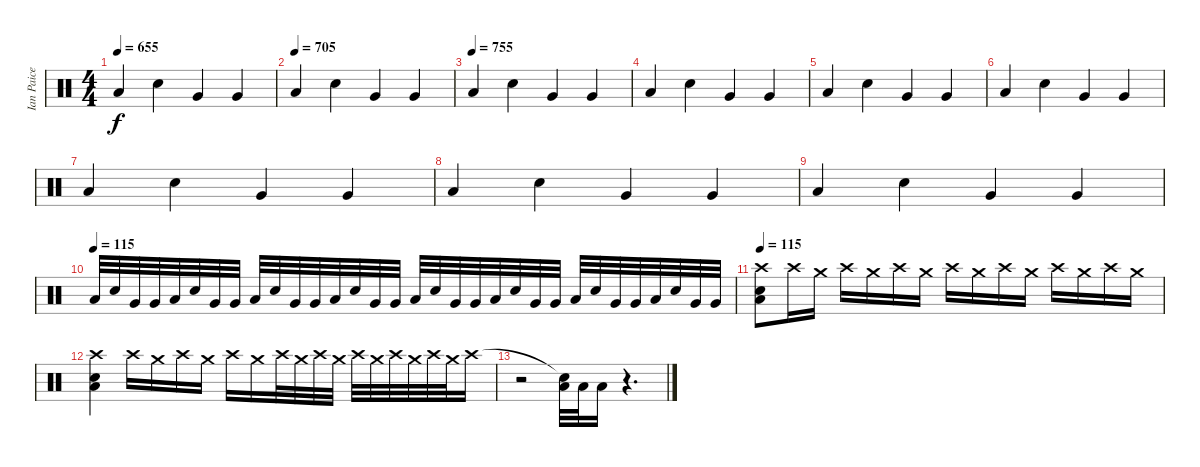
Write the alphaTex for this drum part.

\track ("Ian Paice" "Ian Paice") {instrument percussion}
\staff {score}
\articulation defaults
\ts (4 4)
\tempo 655
\clef neutral
\ks c "Low Floor Tom (hit)".4{dy f} "Snare (hit) 2".4 "Very Low Tom (hit)".4 "Very Low Tom (hit)".4
|
\tempo (705)
"Low Floor Tom (hit)".4 "Snare (hit) 2".4 "Very Low Tom (hit)".4 "Very Low Tom (hit)".4 |
\tempo (755)
"Low Floor Tom (hit)".4 "Snare (hit) 2".4 "Very Low Tom (hit)".4 "Very Low Tom (hit)".4 |
"Low Floor Tom (hit)".4 "Snare (hit) 2".4 "Very Low Tom (hit)".4 "Very Low Tom (hit)".4 |
"Low Floor Tom (hit)".4 "Snare (hit) 2".4 "Very Low Tom (hit)".4 "Very Low Tom (hit)".4 |
"Low Floor Tom (hit)".4 "Snare (hit) 2".4 "Very Low Tom (hit)".4 "Very Low Tom (hit)".4 |
"Low Floor Tom (hit)".4 "Snare (hit) 2".4 "Very Low Tom (hit)".4 "Very Low Tom (hit)".4 |
"Low Floor Tom (hit)".4 "Snare (hit) 2".4 "Very Low Tom (hit)".4 "Very Low Tom (hit)".4 |
"Low Floor Tom (hit)".4 "Snare (hit) 2".4 "Very Low Tom (hit)".4 "Very Low Tom (hit)".4 |
\tempo (115)
"Low Floor Tom (hit)".32 "Snare (hit) 2".32 "Very Low Tom (hit)".32 "Very Low Tom (hit)".32 "Low Floor Tom (hit)".32 "Snare (hit) 2".32 "Very Low Tom (hit)".32 "Very Low Tom (hit)".32 "Low Floor Tom (hit)".32 "Snare (hit) 2".32 "Very Low Tom (hit)".32 "Very Low Tom (hit)".32 "Low Floor Tom (hit)".32 "Snare (hit) 2".32 "Very Low Tom (hit)".32 "Very Low Tom (hit)".32 "Low Floor Tom (hit)".32 "Snare (hit) 2".32 "Very Low Tom (hit)".32 "Very Low Tom (hit)".32 "Low Floor Tom (hit)".32 "Snare (hit) 2".32 "Very Low Tom (hit)".32 "Very Low Tom (hit)".32 "Low Floor Tom (hit)".32 "Snare (hit) 2".32 "Very Low Tom (hit)".32 "Very Low Tom (hit)".32 "Low Floor Tom (hit)".32 "Snare (hit) 2".32 "Very Low Tom (hit)".32 "Very Low Tom (hit)".32 |
\tempo 115
("Crash high (hit)" "Snare (hit) 2" "Low Floor Tom (hit)").8 "Crash high (hit)".16 "Crash medium (hit)".16 "Crash high (hit)".16 "Crash medium (hit)".16 "Crash high (hit)".16 "Crash medium (hit)".16 "Crash high (hit)".16 "Crash medium (hit)".16 "Crash high (hit)".16 "Crash medium (hit)".16 "Crash high (hit)".16 "Crash medium (hit)".16 "Crash high (hit)".16 "Crash medium (hit)".16 |
("Crash high (hit)" "Snare (hit) 2" "Low Floor Tom (hit)").4{volume 0} "Crash high (hit)".16 "Crash medium (hit)".16 "Crash high (hit)".16 "Crash medium (hit)".16 "Crash high (hit)".16 "Crash medium (hit)".16 "Crash high (hit)".32 "Crash medium (hit)".32 "Crash high (hit)".32 "Crash medium (hit)".32 "Crash high (hit)".32 "Crash medium (hit)".32 "Crash high (hit)".32 "Crash medium (hit)".32 "Crash high (hit)".32 "Crash medium (hit)".32 "Crash high (hit)".16 |
r.2 ("Snare (hit)"{t} "Low Floor Tom (hit)").32{volume 13} "Low Floor Tom (hit)".32 "Low Floor Tom (hit)".16 r.4{d}
